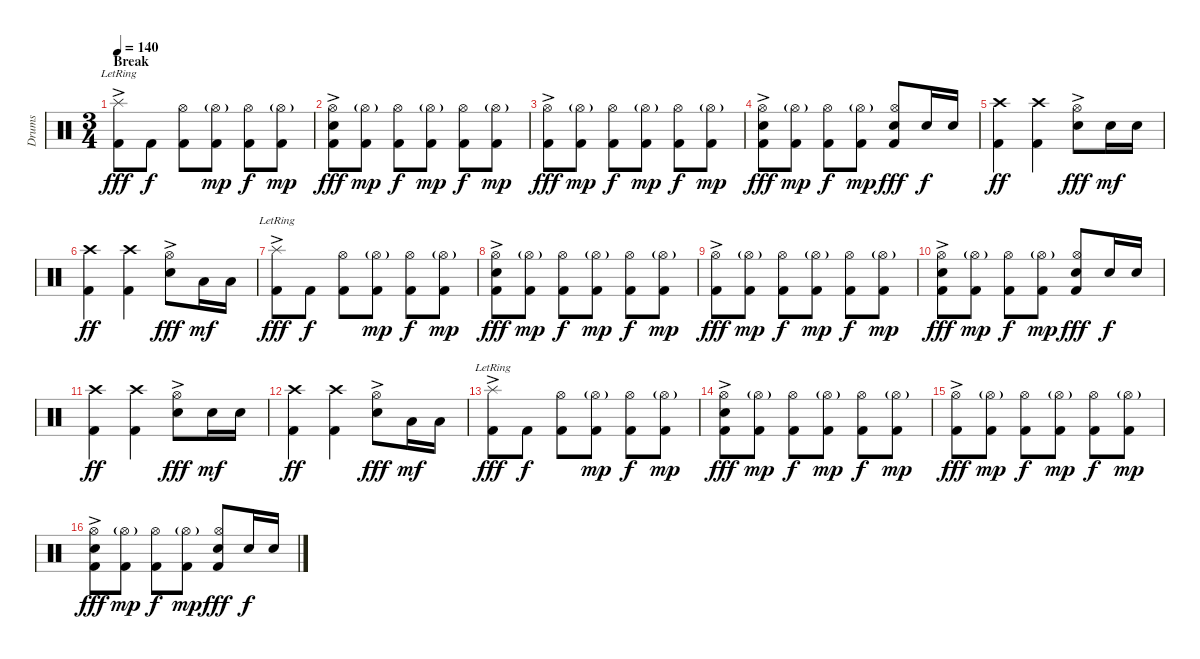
\track ("Drums" "Drums") {instrument percussion}
\staff {score}
\articulation defaults
\ts (3 4)
\section ("" "Break")
\tempo 140
\clef neutral
\ks c
("Splash (hit)"{lr} "Kick (hit) 2"{ac}).8{dy fff} "Kick (hit) 2".8{dy f} ("Hi-Hat (open)" "Kick (hit) 2").8 ("Hi-Hat (open)"{g} "Kick (hit) 2").8{dy mp} ("Hi-Hat (open)" "Kick (hit) 2").8{dy f} ("Hi-Hat (open)"{g} "Kick (hit) 2").8{dy mp} |
("Hi-Hat (open)" "Snare (hit) 2"{ac} "Kick (hit) 2").8{dy fff} ("Hi-Hat (open)"{g} "Kick (hit) 2").8{dy mp} ("Hi-Hat (open)" "Kick (hit) 2").8{dy f} ("Hi-Hat (open)"{g} "Kick (hit) 2").8{dy mp} ("Hi-Hat (open)" "Kick (hit) 2").8{dy f} ("Hi-Hat (open)"{g} "Kick (hit) 2").8{dy mp} |
("Hi-Hat (open)" "Kick (hit) 2"{ac}).8{dy fff} ("Hi-Hat (open)"{g} "Kick (hit) 2").8{dy mp} ("Hi-Hat (open)" "Kick (hit) 2").8{dy f} ("Hi-Hat (open)"{g} "Kick (hit) 2").8{dy mp} ("Hi-Hat (open)" "Kick (hit) 2").8{dy f} ("Hi-Hat (open)"{g} "Kick (hit) 2").8{dy mp} |
("Hi-Hat (open)" "Snare (hit) 2"{ac} "Kick (hit) 2").8{dy fff} ("Hi-Hat (open)"{g} "Kick (hit) 2").8{dy mp} ("Hi-Hat (open)" "Kick (hit) 2").8{dy f} ("Hi-Hat (open)"{g} "Kick (hit) 2").8{dy mp} ("Hi-Hat (open)" "Snare (hit) 2" "Kick (hit) 2").8{dy fff} "Snare (hit) 2".16{dy f} "Snare (hit) 2".16 |
("Crash high (hit)" "Kick (hit) 2").4{dy ff} ("Crash high (hit)" "Kick (hit) 2").4 ("Hi-Hat (open)" "Snare (hit) 2"{ac}).8{dy fff} "Snare (hit) 2".16{dy mf} "Snare (hit) 2".16 |
("Crash high (hit)" "Kick (hit) 2").4{dy ff} ("Crash high (hit)" "Kick (hit) 2").4 ("Hi-Hat (open)" "Snare (hit) 2"{ac}).8{dy fff} "Low Tom (hit)".16{dy mf} "Low Tom (hit)".16 |
("Splash (hit)"{lr} "Kick (hit) 2"{ac}).8{dy fff} "Kick (hit) 2".8{dy f} ("Hi-Hat (open)" "Kick (hit) 2").8 ("Hi-Hat (open)"{g} "Kick (hit) 2").8{dy mp} ("Hi-Hat (open)" "Kick (hit) 2").8{dy f} ("Hi-Hat (open)"{g} "Kick (hit) 2").8{dy mp} |
("Hi-Hat (open)" "Snare (hit) 2"{ac} "Kick (hit) 2").8{dy fff} ("Hi-Hat (open)"{g} "Kick (hit) 2").8{dy mp} ("Hi-Hat (open)" "Kick (hit) 2").8{dy f} ("Hi-Hat (open)"{g} "Kick (hit) 2").8{dy mp} ("Hi-Hat (open)" "Kick (hit) 2").8{dy f} ("Hi-Hat (open)"{g} "Kick (hit) 2").8{dy mp} |
("Hi-Hat (open)" "Kick (hit) 2"{ac}).8{dy fff} ("Hi-Hat (open)"{g} "Kick (hit) 2").8{dy mp} ("Hi-Hat (open)" "Kick (hit) 2").8{dy f} ("Hi-Hat (open)"{g} "Kick (hit) 2").8{dy mp} ("Hi-Hat (open)" "Kick (hit) 2").8{dy f} ("Hi-Hat (open)"{g} "Kick (hit) 2").8{dy mp} |
("Hi-Hat (open)" "Snare (hit) 2"{ac} "Kick (hit) 2").8{dy fff} ("Hi-Hat (open)"{g} "Kick (hit) 2").8{dy mp} ("Hi-Hat (open)" "Kick (hit) 2").8{dy f} ("Hi-Hat (open)"{g} "Kick (hit) 2").8{dy mp} ("Hi-Hat (open)" "Snare (hit) 2" "Kick (hit) 2").8{dy fff} "Snare (hit) 2".16{dy f} "Snare (hit) 2".16 |
("Crash high (hit)" "Kick (hit) 2").4{dy ff} ("Crash high (hit)" "Kick (hit) 2").4 ("Hi-Hat (open)" "Snare (hit) 2"{ac}).8{dy fff} "Snare (hit) 2".16{dy mf} "Snare (hit) 2".16 |
("Crash high (hit)" "Kick (hit) 2").4{dy ff} ("Crash high (hit)" "Kick (hit) 2").4 ("Hi-Hat (open)" "Snare (hit) 2"{ac}).8{dy fff} "Low Tom (hit)".16{dy mf} "Low Tom (hit)".16 |
("Splash (hit)"{lr} "Kick (hit) 2"{ac}).8{dy fff} "Kick (hit) 2".8{dy f} ("Hi-Hat (open)" "Kick (hit) 2").8 ("Hi-Hat (open)"{g} "Kick (hit) 2").8{dy mp} ("Hi-Hat (open)" "Kick (hit) 2").8{dy f} ("Hi-Hat (open)"{g} "Kick (hit) 2").8{dy mp} |
("Hi-Hat (open)" "Snare (hit) 2"{ac} "Kick (hit) 2").8{dy fff} ("Hi-Hat (open)"{g} "Kick (hit) 2").8{dy mp} ("Hi-Hat (open)" "Kick (hit) 2").8{dy f} ("Hi-Hat (open)"{g} "Kick (hit) 2").8{dy mp} ("Hi-Hat (open)" "Kick (hit) 2").8{dy f} ("Hi-Hat (open)"{g} "Kick (hit) 2").8{dy mp} |
("Hi-Hat (open)" "Kick (hit) 2"{ac}).8{dy fff} ("Hi-Hat (open)"{g} "Kick (hit) 2").8{dy mp} ("Hi-Hat (open)" "Kick (hit) 2").8{dy f} ("Hi-Hat (open)"{g} "Kick (hit) 2").8{dy mp} ("Hi-Hat (open)" "Kick (hit) 2").8{dy f} ("Hi-Hat (open)"{g} "Kick (hit) 2").8{dy mp} |
("Hi-Hat (open)" "Snare (hit) 2"{ac} "Kick (hit) 2").8{dy fff} ("Hi-Hat (open)"{g} "Kick (hit) 2").8{dy mp} ("Hi-Hat (open)" "Kick (hit) 2").8{dy f} ("Hi-Hat (open)"{g} "Kick (hit) 2").8{dy mp} ("Hi-Hat (open)" "Snare (hit) 2" "Kick (hit) 2").8{dy fff} "Snare (hit) 2".16{dy f} "Snare (hit) 2".16
